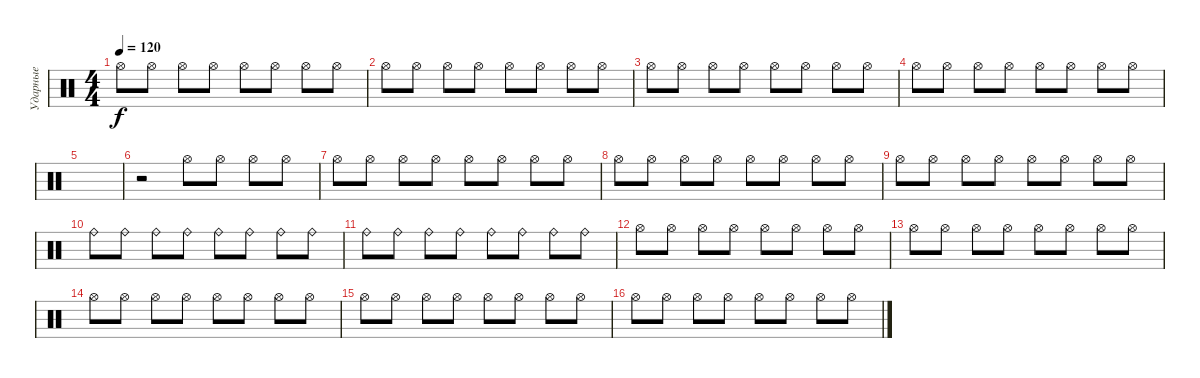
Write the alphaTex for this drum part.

\track ("Ударные" "Ударные") {instrument percussion}
\staff {score}
\articulation defaults
\ts (4 4)
\tempo 120
\clef neutral
\ks c "Hi-Hat (open)".8{dy f} "Hi-Hat (open)".8 "Hi-Hat (open)".8 "Hi-Hat (open)".8 "Hi-Hat (open)".8 "Hi-Hat (open)".8 "Hi-Hat (open)".8 "Hi-Hat (open)".8
|
"Hi-Hat (open)".8 "Hi-Hat (open)".8 "Hi-Hat (open)".8 "Hi-Hat (open)".8 "Hi-Hat (open)".8 "Hi-Hat (open)".8 "Hi-Hat (open)".8 "Hi-Hat (open)".8 |
"Hi-Hat (open)".8 "Hi-Hat (open)".8 "Hi-Hat (open)".8 "Hi-Hat (open)".8 "Hi-Hat (open)".8 "Hi-Hat (open)".8 "Hi-Hat (open)".8 "Hi-Hat (open)".8 |
"Hi-Hat (open)".8 "Hi-Hat (open)".8 "Hi-Hat (open)".8 "Hi-Hat (open)".8 "Hi-Hat (open)".8 "Hi-Hat (open)".8 "Hi-Hat (open)".8 "Hi-Hat (open)".8 |
|
r.2 "Hi-Hat (open)".8 "Hi-Hat (open)".8 "Hi-Hat (open)".8 "Hi-Hat (open)".8 |
"Hi-Hat (open)".8 "Hi-Hat (open)".8 "Hi-Hat (open)".8 "Hi-Hat (open)".8 "Hi-Hat (open)".8 "Hi-Hat (open)".8 "Hi-Hat (open)".8 "Hi-Hat (open)".8 |
"Hi-Hat (open)".8 "Hi-Hat (open)".8 "Hi-Hat (open)".8 "Hi-Hat (open)".8 "Hi-Hat (open)".8 "Hi-Hat (open)".8 "Hi-Hat (open)".8 "Hi-Hat (open)".8 |
"Hi-Hat (open)".8 "Hi-Hat (open)".8 "Hi-Hat (open)".8 "Hi-Hat (open)".8 "Hi-Hat (open)".8 "Hi-Hat (open)".8 "Hi-Hat (open)".8 "Hi-Hat (open)".8 |
"Ride (bell)".8 "Ride (bell)".8 "Ride (bell)".8 "Ride (bell)".8 "Ride (bell)".8 "Ride (bell)".8 "Ride (bell)".8 "Ride (bell)".8 |
"Ride (bell)".8 "Ride (bell)".8 "Ride (bell)".8 "Ride (bell)".8 "Ride (bell)".8 "Ride (bell)".8 "Ride (bell)".8 "Ride (bell)".8 |
"Hi-Hat (open)".8 "Hi-Hat (open)".8 "Hi-Hat (open)".8 "Hi-Hat (open)".8 "Hi-Hat (open)".8 "Hi-Hat (open)".8 "Hi-Hat (open)".8 "Hi-Hat (open)".8 |
"Hi-Hat (open)".8 "Hi-Hat (open)".8 "Hi-Hat (open)".8 "Hi-Hat (open)".8 "Hi-Hat (open)".8 "Hi-Hat (open)".8 "Hi-Hat (open)".8 "Hi-Hat (open)".8 |
"Hi-Hat (open)".8 "Hi-Hat (open)".8 "Hi-Hat (open)".8 "Hi-Hat (open)".8 "Hi-Hat (open)".8 "Hi-Hat (open)".8 "Hi-Hat (open)".8 "Hi-Hat (open)".8 |
"Hi-Hat (open)".8 "Hi-Hat (open)".8 "Hi-Hat (open)".8 "Hi-Hat (open)".8 "Hi-Hat (open)".8 "Hi-Hat (open)".8 "Hi-Hat (open)".8 "Hi-Hat (open)".8 |
"Hi-Hat (open)".8 "Hi-Hat (open)".8 "Hi-Hat (open)".8 "Hi-Hat (open)".8 "Hi-Hat (open)".8 "Hi-Hat (open)".8 "Hi-Hat (open)".8 "Hi-Hat (open)".8
